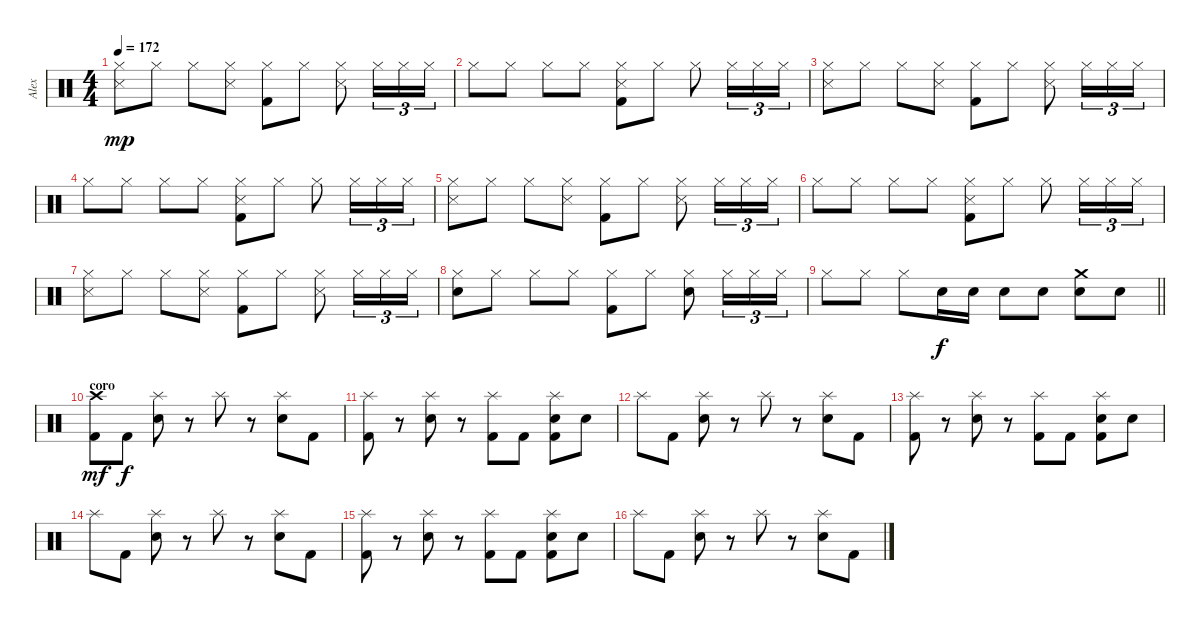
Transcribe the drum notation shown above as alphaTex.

\track ("Alex" "Alex") {instrument percussion}
\staff {score}
\articulation defaults
\ts (4 4)
\tempo 172
\clef neutral
\ks c
("Hi-Hat (closed)" "Snare (side stick) 3").8{dy mp} "Hi-Hat (closed)".8 "Hi-Hat (closed)".8 ("Hi-Hat (closed)" "Snare (side stick) 3").8 ("Hi-Hat (closed)" "Kick (hit) 2").8 "Hi-Hat (closed)".8 ("Hi-Hat (closed)" "Snare (side stick) 3").8 "Hi-Hat (closed)".16{tu (3 2)} "Hi-Hat (closed)".16{tu (3 2)} "Hi-Hat (closed)".16{tu (3 2)} |
"Hi-Hat (closed)".8 "Hi-Hat (closed)".8 "Hi-Hat (closed)".8 "Hi-Hat (closed)".8 ("Hi-Hat (closed)" "Snare (side stick) 3" "Kick (hit) 2").8 "Hi-Hat (closed)".8 "Hi-Hat (closed)".8 "Hi-Hat (closed)".16{tu (3 2)} "Hi-Hat (closed)".16{tu (3 2)} "Hi-Hat (closed)".16{tu (3 2)} |
("Hi-Hat (closed)" "Snare (side stick) 3").8 "Hi-Hat (closed)".8 "Hi-Hat (closed)".8 ("Hi-Hat (closed)" "Snare (side stick) 3").8 ("Hi-Hat (closed)" "Kick (hit) 2").8 "Hi-Hat (closed)".8 ("Hi-Hat (closed)" "Snare (side stick) 3").8 "Hi-Hat (closed)".16{tu (3 2)} "Hi-Hat (closed)".16{tu (3 2)} "Hi-Hat (closed)".16{tu (3 2)} |
"Hi-Hat (closed)".8 "Hi-Hat (closed)".8 "Hi-Hat (closed)".8 "Hi-Hat (closed)".8 ("Hi-Hat (closed)" "Snare (side stick) 3" "Kick (hit) 2").8 "Hi-Hat (closed)".8 "Hi-Hat (closed)".8 "Hi-Hat (closed)".16{tu (3 2)} "Hi-Hat (closed)".16{tu (3 2)} "Hi-Hat (closed)".16{tu (3 2)} |
("Hi-Hat (closed)" "Snare (side stick) 3").8 "Hi-Hat (closed)".8 "Hi-Hat (closed)".8 ("Hi-Hat (closed)" "Snare (side stick) 3").8 ("Hi-Hat (closed)" "Kick (hit) 2").8 "Hi-Hat (closed)".8 ("Hi-Hat (closed)" "Snare (side stick) 3").8 "Hi-Hat (closed)".16{tu (3 2)} "Hi-Hat (closed)".16{tu (3 2)} "Hi-Hat (closed)".16{tu (3 2)} |
"Hi-Hat (closed)".8 "Hi-Hat (closed)".8 "Hi-Hat (closed)".8 "Hi-Hat (closed)".8 ("Hi-Hat (closed)" "Snare (side stick) 3" "Kick (hit) 2").8 "Hi-Hat (closed)".8 "Hi-Hat (closed)".8 "Hi-Hat (closed)".16{tu (3 2)} "Hi-Hat (closed)".16{tu (3 2)} "Hi-Hat (closed)".16{tu (3 2)} |
("Hi-Hat (closed)" "Snare (side stick) 3").8 "Hi-Hat (closed)".8 "Hi-Hat (closed)".8 ("Hi-Hat (closed)" "Snare (side stick) 3").8 ("Hi-Hat (closed)" "Kick (hit) 2").8 "Hi-Hat (closed)".8 ("Hi-Hat (closed)" "Snare (side stick) 3").8 "Hi-Hat (closed)".16{tu (3 2)} "Hi-Hat (closed)".16{tu (3 2)} "Hi-Hat (closed)".16{tu (3 2)} |
("Hi-Hat (closed)" "Electric Snare (hit)").8 "Hi-Hat (closed)".8 "Hi-Hat (closed)".8 "Hi-Hat (closed)".8 ("Hi-Hat (closed)" "Kick (hit) 2").8 "Hi-Hat (closed)".8 ("Hi-Hat (closed)" "Electric Snare (hit)").8 "Hi-Hat (closed)".16{tu (3 2)} "Hi-Hat (closed)".16{tu (3 2)} "Hi-Hat (closed)".16{tu (3 2)} |
\barLineRight lightlight "Hi-Hat (closed)".8 "Hi-Hat (closed)".8 "Hi-Hat (closed)".8 "Electric Snare (hit)".16{dy f} "Electric Snare (hit)".16 "Electric Snare (hit)".8 "Electric Snare (hit)".8
("Electric Snare (hit)" "Crash medium (hit)").8 "Electric Snare (hit)".8 |
\section ("" "coro")
("Crash high (hit)" "Kick (hit) 2").8{dy mf} "Kick (hit) 2".8{dy f} ("Splash (hit)" "Electric Snare (hit)").8 r.8 "Splash (hit)".8 r.8 ("Splash (hit)" "Electric Snare (hit)").8 "Kick (hit) 2".8 |
("Splash (hit)" "Kick (hit) 2").8 r.8 ("Splash (hit)" "Electric Snare (hit)").8 r.8 ("Splash (hit)" "Kick (hit) 2").8 "Kick (hit) 2".8 ("Splash (hit)" "Electric Snare (hit)" "Kick (hit) 2").8 "Electric Snare (hit)".8 |
"Splash (hit)".8 "Kick (hit) 2".8 ("Splash (hit)" "Electric Snare (hit)").8 r.8 "Splash (hit)".8 r.8 ("Splash (hit)" "Electric Snare (hit)").8 "Kick (hit) 2".8 |
("Splash (hit)" "Kick (hit) 2").8 r.8 ("Splash (hit)" "Electric Snare (hit)").8 r.8 ("Splash (hit)" "Kick (hit) 2").8 "Kick (hit) 2".8 ("Splash (hit)" "Electric Snare (hit)" "Kick (hit) 2").8 "Electric Snare (hit)".8 |
"Splash (hit)".8 "Kick (hit) 2".8 ("Splash (hit)" "Electric Snare (hit)").8 r.8 "Splash (hit)".8 r.8 ("Splash (hit)" "Electric Snare (hit)").8 "Kick (hit) 2".8 |
("Splash (hit)" "Kick (hit) 2").8 r.8 ("Splash (hit)" "Electric Snare (hit)").8 r.8 ("Splash (hit)" "Kick (hit) 2").8 "Kick (hit) 2".8 ("Splash (hit)" "Electric Snare (hit)" "Kick (hit) 2").8 "Electric Snare (hit)".8 |
"Splash (hit)".8 "Kick (hit) 2".8 ("Splash (hit)" "Electric Snare (hit)").8 r.8 "Splash (hit)".8 r.8 ("Splash (hit)" "Electric Snare (hit)").8 "Kick (hit) 2".8
